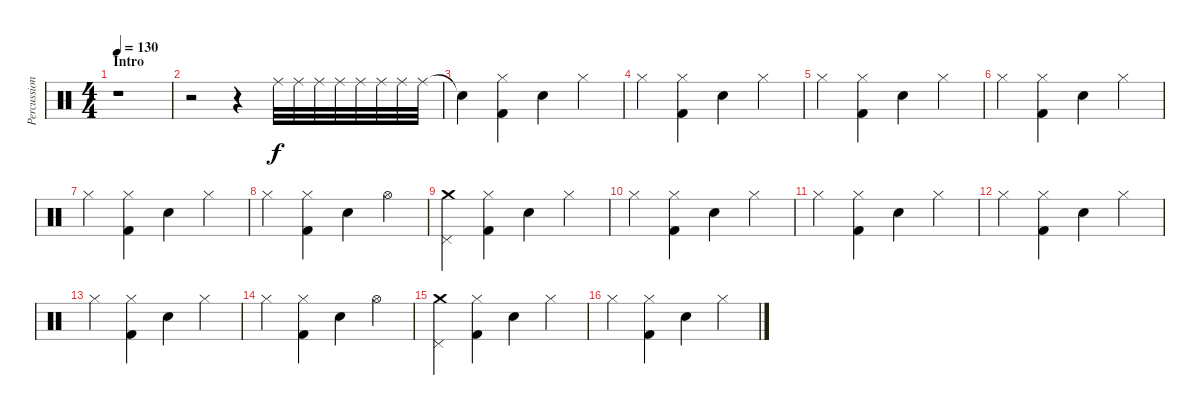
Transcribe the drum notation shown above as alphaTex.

\track ("Percussion" "Percussion") {instrument percussion}
\staff {score}
\articulation defaults
\ts (4 4)
\section ("" "Intro")
\tempo 130
\clef neutral
\ks c
r.1{dy f volume 0} |
r.2 r.4 "Ride (middle)".32{volume 13} "Ride (middle)".32 "Ride (middle)".32 "Ride (middle)".32 "Ride (middle)".32 "Ride (middle)".32 "Ride (middle)".32 "Ride (middle)".32 |
"Snare (hit)"{t}.4 ("Hi-Hat (closed)" "Kick (hit) 2").4 "Snare (hit) 2".4 "Hi-Hat (closed)".4 |
"Hi-Hat (closed)".4 ("Hi-Hat (closed)" "Kick (hit) 2").4 "Snare (hit) 2".4 "Hi-Hat (closed)".4 |
"Hi-Hat (closed)".4 ("Hi-Hat (closed)" "Kick (hit) 2").4 "Snare (hit) 2".4 "Hi-Hat (closed)".4 |
"Hi-Hat (closed)".4 ("Hi-Hat (closed)" "Kick (hit) 2").4 "Snare (hit) 2".4 "Hi-Hat (closed)".4 |
"Hi-Hat (closed)".4 ("Hi-Hat (closed)" "Kick (hit) 2").4 "Snare (hit) 2".4 "Hi-Hat (closed)".4 |
"Hi-Hat (closed)".4 ("Hi-Hat (closed)" "Kick (hit) 2").4 "Snare (hit) 2".4 "Hi-Hat (open)".4 |
("Crash medium (hit)" "Pedal Hi-Hat (hit)").4 ("Hi-Hat (closed)" "Kick (hit) 2").4 "Snare (hit) 2".4 "Hi-Hat (closed)".4 |
"Hi-Hat (closed)".4 ("Hi-Hat (closed)" "Kick (hit) 2").4 "Snare (hit) 2".4 "Hi-Hat (closed)".4 |
"Hi-Hat (closed)".4 ("Hi-Hat (closed)" "Kick (hit) 2").4 "Snare (hit) 2".4 "Hi-Hat (closed)".4 |
"Hi-Hat (closed)".4 ("Hi-Hat (closed)" "Kick (hit) 2").4 "Snare (hit) 2".4 "Hi-Hat (closed)".4 |
"Hi-Hat (closed)".4 ("Hi-Hat (closed)" "Kick (hit) 2").4 "Snare (hit) 2".4 "Hi-Hat (closed)".4 |
"Hi-Hat (closed)".4 ("Hi-Hat (closed)" "Kick (hit) 2").4 "Snare (hit) 2".4 "Hi-Hat (open)".4 |
("Crash medium (hit)" "Pedal Hi-Hat (hit)").4 ("Hi-Hat (closed)" "Kick (hit) 2").4 "Snare (hit) 2".4 "Hi-Hat (closed)".4 |
"Hi-Hat (closed)".4 ("Hi-Hat (closed)" "Kick (hit) 2").4 "Snare (hit) 2".4 "Hi-Hat (closed)".4
